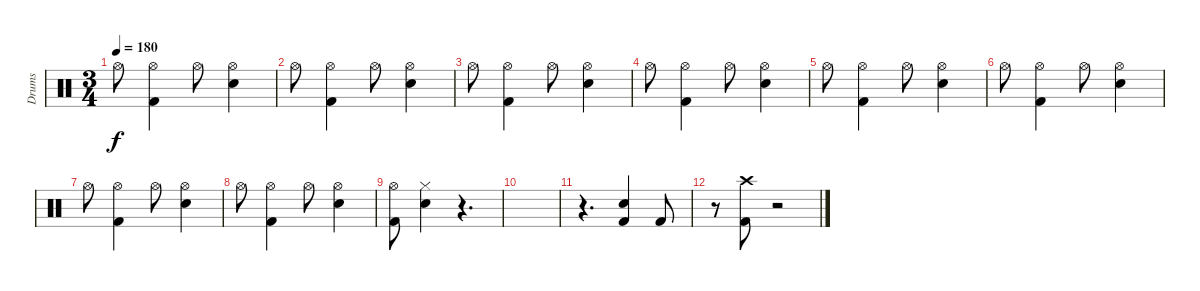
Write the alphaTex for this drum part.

\track ("Drums" "Drums") {instrument percussion}
\staff {score}
\articulation defaults
\ts (3 4)
\tempo 180
\clef neutral
\ks c "Hi-Hat (open)".8{dy f}
("Hi-Hat (open)" "Kick (hit) 2").4 "Hi-Hat (open)".8 ("Hi-Hat (open)" "Snare (hit) 2").4 |
"Hi-Hat (open)".8 ("Hi-Hat (open)" "Kick (hit) 2").4 "Hi-Hat (open)".8 ("Hi-Hat (open)" "Snare (hit) 2").4 |
"Hi-Hat (open)".8 ("Hi-Hat (open)" "Kick (hit) 2").4 "Hi-Hat (open)".8 ("Hi-Hat (open)" "Snare (hit) 2").4 |
"Hi-Hat (open)".8 ("Hi-Hat (open)" "Kick (hit) 2").4 "Hi-Hat (open)".8 ("Hi-Hat (open)" "Snare (hit) 2").4 |
"Hi-Hat (open)".8 ("Hi-Hat (open)" "Kick (hit) 2").4 "Hi-Hat (open)".8 ("Hi-Hat (open)" "Snare (hit) 2").4 |
"Hi-Hat (open)".8 ("Hi-Hat (open)" "Kick (hit) 2").4 "Hi-Hat (open)".8 ("Hi-Hat (open)" "Snare (hit) 2").4 |
"Hi-Hat (open)".8 ("Hi-Hat (open)" "Kick (hit) 2").4 "Hi-Hat (open)".8 ("Hi-Hat (open)" "Snare (hit) 2").4 |
"Hi-Hat (open)".8 ("Hi-Hat (open)" "Kick (hit) 2").4 "Hi-Hat (open)".8 ("Hi-Hat (open)" "Snare (hit) 2").4 |
("Hi-Hat (open)" "Kick (hit) 2").8 ("Hi-Hat (closed)" "Snare (hit) 2").4 r.4{d} |
|
r.4{d} ("Snare (hit) 2" "Kick (hit) 2").4 "Kick (hit) 2".8 |
r.8 ("Crash high (hit)" "Kick (hit) 2").8 r.2
